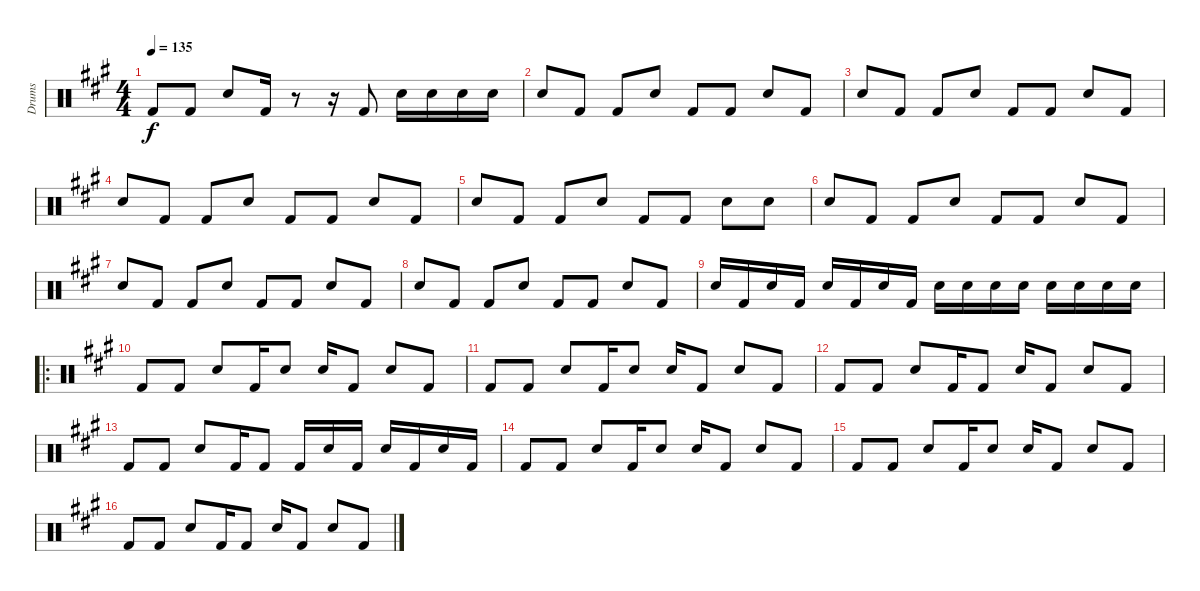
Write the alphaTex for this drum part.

\track ("Drums" "Drums") {instrument percussion}
\staff {score}
\articulation defaults
\ts (4 4)
\tempo 135
\clef neutral
\ks a "Kick (hit) 2".8{dy f} "Kick (hit) 2".8 "Snare (hit) 2".8 "Kick (hit) 2".16
r.8 r.16 "Kick (hit) 2".8 "Snare (hit) 2".16 "Snare (hit) 2".16 "Snare (hit) 2".16 "Snare (hit) 2".16 |
"Snare (hit) 2".8 "Kick (hit) 2".8 "Kick (hit) 2".8 "Snare (hit) 2".8 "Kick (hit) 2".8 "Kick (hit) 2".8 "Snare (hit) 2".8 "Kick (hit) 2".8 |
"Snare (hit) 2".8 "Kick (hit) 2".8 "Kick (hit) 2".8 "Snare (hit) 2".8 "Kick (hit) 2".8 "Kick (hit) 2".8 "Snare (hit) 2".8 "Kick (hit) 2".8 |
"Snare (hit) 2".8 "Kick (hit) 2".8 "Kick (hit) 2".8 "Snare (hit) 2".8 "Kick (hit) 2".8 "Kick (hit) 2".8 "Snare (hit) 2".8 "Kick (hit) 2".8 |
"Snare (hit) 2".8 "Kick (hit) 2".8 "Kick (hit) 2".8 "Snare (hit) 2".8 "Kick (hit) 2".8 "Kick (hit) 2".8 "Snare (hit) 2".8 "Snare (hit) 2".8 |
"Snare (hit) 2".8 "Kick (hit) 2".8 "Kick (hit) 2".8 "Snare (hit) 2".8 "Kick (hit) 2".8 "Kick (hit) 2".8 "Snare (hit) 2".8 "Kick (hit) 2".8 |
"Snare (hit) 2".8 "Kick (hit) 2".8 "Kick (hit) 2".8 "Snare (hit) 2".8 "Kick (hit) 2".8 "Kick (hit) 2".8 "Snare (hit) 2".8 "Kick (hit) 2".8 |
"Snare (hit) 2".8 "Kick (hit) 2".8 "Kick (hit) 2".8 "Snare (hit) 2".8 "Kick (hit) 2".8 "Kick (hit) 2".8 "Snare (hit) 2".8 "Kick (hit) 2".8 |
"Snare (hit) 2".16 "Kick (hit) 2".16 "Snare (hit) 2".16 "Kick (hit) 2".16 "Snare (hit) 2".16 "Kick (hit) 2".16 "Snare (hit) 2".16 "Kick (hit) 2".16 "Snare (hit) 2".16 "Snare (hit) 2".16 "Snare (hit) 2".16 "Snare (hit) 2".16 "Snare (hit) 2".16 "Snare (hit) 2".16 "Snare (hit) 2".16 "Snare (hit) 2".16 |
\ro "Kick (hit) 2".8 "Kick (hit) 2".8 "Snare (hit) 2".8 "Kick (hit) 2".16 "Snare (hit) 2".8 "Snare (hit) 2".16 "Kick (hit) 2".8 "Snare (hit) 2".8 "Kick (hit) 2".8
|
"Kick (hit) 2".8 "Kick (hit) 2".8 "Snare (hit) 2".8 "Kick (hit) 2".16 "Snare (hit) 2".8 "Snare (hit) 2".16 "Kick (hit) 2".8 "Snare (hit) 2".8 "Kick (hit) 2".8 |
"Kick (hit) 2".8 "Kick (hit) 2".8 "Snare (hit) 2".8 "Kick (hit) 2".16 "Kick (hit) 2".8 "Snare (hit) 2".16 "Kick (hit) 2".8 "Snare (hit) 2".8 "Kick (hit) 2".8 |
"Kick (hit) 2".8 "Kick (hit) 2".8 "Snare (hit) 2".8 "Kick (hit) 2".16 "Kick (hit) 2".8 "Kick (hit) 2".16 "Snare (hit) 2".16 "Kick (hit) 2".16 "Snare (hit) 2".16 "Kick (hit) 2".16 "Snare (hit) 2".16 "Kick (hit) 2".16 |
"Kick (hit) 2".8 "Kick (hit) 2".8 "Snare (hit) 2".8 "Kick (hit) 2".16 "Snare (hit) 2".8 "Snare (hit) 2".16 "Kick (hit) 2".8 "Snare (hit) 2".8 "Kick (hit) 2".8 |
"Kick (hit) 2".8 "Kick (hit) 2".8 "Snare (hit) 2".8 "Kick (hit) 2".16 "Snare (hit) 2".8 "Snare (hit) 2".16 "Kick (hit) 2".8 "Snare (hit) 2".8 "Kick (hit) 2".8 |
"Kick (hit) 2".8 "Kick (hit) 2".8 "Snare (hit) 2".8 "Kick (hit) 2".16 "Kick (hit) 2".8 "Snare (hit) 2".16 "Kick (hit) 2".8 "Snare (hit) 2".8 "Kick (hit) 2".8
